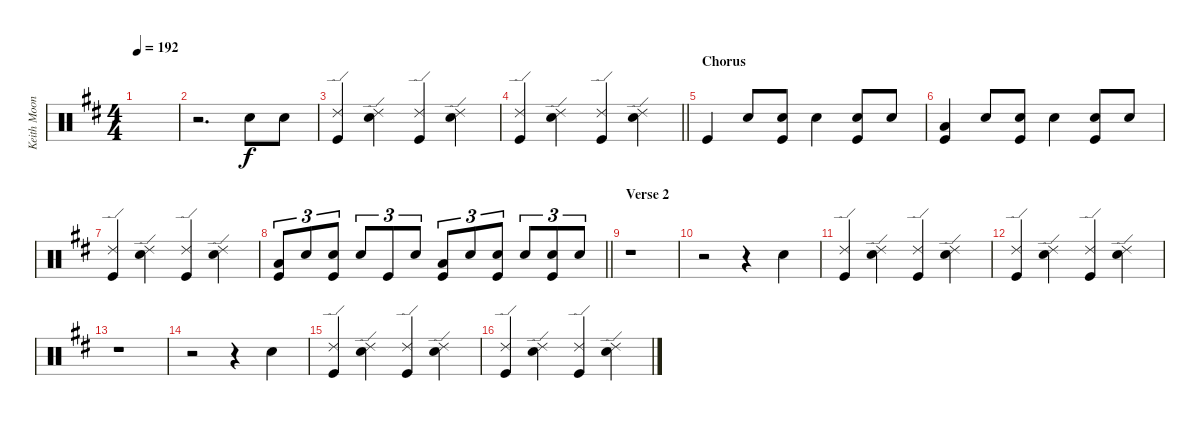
\track ("Keith Moon - Drums" "Keith Moon") {instrument percussion}
\staff {score}
\articulation defaults
\ts (4 4)
\tempo 192
\clef neutral
\ks d
|
r.2{d} "Electric Snare (hit)".8 "Electric Snare (hit)".8 |
("Ride (edge) 2" "Kick (hit)").4 ("Ride (edge) 2" "Electric Snare (hit)").4 ("Ride (edge) 2" "Kick (hit)").4 ("Ride (edge) 2" "Electric Snare (hit)").4 |
\barLineRight lightlight
("Ride (edge) 2" "Kick (hit)").4 ("Ride (edge) 2" "Electric Snare (hit)").4 ("Ride (edge) 2" "Kick (hit)").4 ("Ride (edge) 2" "Electric Snare (hit)").4 |
\section ("" "Chorus")
"Kick (hit)".4 "Electric Snare (hit)".8 ("Electric Snare (hit)" "Kick (hit)").8 "Electric Snare (hit)".4 ("Electric Snare (hit)" "Kick (hit)").8 "Electric Snare (hit)".8 |
("Low Floor Tom (hit)" "Kick (hit)").4 "Electric Snare (hit)".8 ("Electric Snare (hit)" "Kick (hit)").8 "Electric Snare (hit)".4 ("Electric Snare (hit)" "Kick (hit)").8 "Electric Snare (hit)".8 |
("Ride (edge) 2" "Kick (hit)").4 ("Ride (edge) 2" "Electric Snare (hit)").4 ("Ride (edge) 2" "Kick (hit)").4 ("Ride (edge) 2" "Electric Snare (hit)").4 |
\barLineRight lightlight
("Low Floor Tom (hit)" "Kick (hit)").8{tu (3 2)} "Electric Snare (hit)".8{tu (3 2)} ("Electric Snare (hit)" "Kick (hit)").8{tu (3 2)} "Electric Snare (hit)".8{tu (3 2)} "Kick (hit)".8{tu (3 2)} "Electric Snare (hit)".8{tu (3 2)} ("Low Floor Tom (hit)" "Kick (hit)").8{tu (3 2)} "Electric Snare (hit)".8{tu (3 2)} ("Electric Snare (hit)" "Kick (hit)").8{tu (3 2)} "Electric Snare (hit)".8{tu (3 2)} ("Electric Snare (hit)" "Kick (hit)").8{tu (3 2)} "Electric Snare (hit)".8{tu (3 2)} |
\section ("" "Verse 2")
r.1 |
r.2 r.4 "Electric Snare (hit)".4 |
("Ride (edge) 2" "Kick (hit)").4 ("Ride (edge) 2" "Electric Snare (hit)").4 ("Ride (edge) 2" "Kick (hit)").4 ("Ride (edge) 2" "Electric Snare (hit)").4 |
("Ride (edge) 2" "Kick (hit)").4 ("Ride (edge) 2" "Electric Snare (hit)").4 ("Ride (edge) 2" "Kick (hit)").4 ("Ride (edge) 2" "Electric Snare (hit)").4 |
r.1 |
r.2 r.4 "Electric Snare (hit)".4 |
("Ride (edge) 2" "Kick (hit)").4 ("Ride (edge) 2" "Electric Snare (hit)").4 ("Ride (edge) 2" "Kick (hit)").4 ("Ride (edge) 2" "Electric Snare (hit)").4 |
("Ride (edge) 2" "Kick (hit)").4 ("Ride (edge) 2" "Electric Snare (hit)").4 ("Ride (edge) 2" "Kick (hit)").4 ("Ride (edge) 2" "Electric Snare (hit)").4
